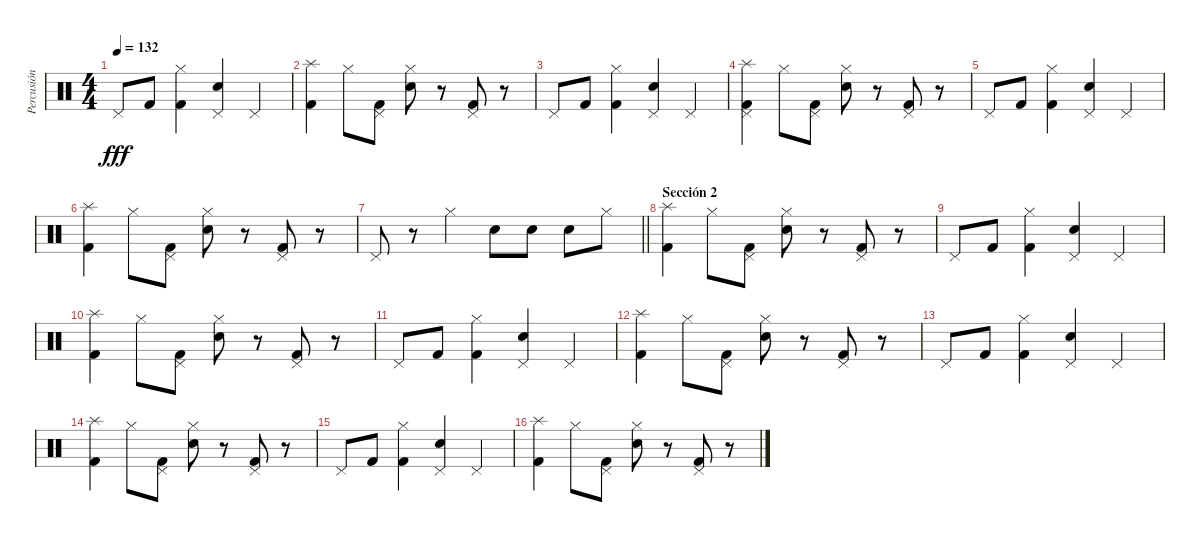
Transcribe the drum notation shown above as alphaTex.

\track ("Percusión" "Percusión") {instrument percussion}
\staff {score}
\articulation defaults
\ts (4 4)
\tempo 132
\clef neutral
\ks c "Pedal Hi-Hat (hit)".8{dy fff} "Kick (hit) 2".8
("Hi-Hat (closed)" "Kick (hit) 2").4 ("Pedal Hi-Hat (hit)" "Snare (hit) 2").4 "Pedal Hi-Hat (hit)".4 |
("Splash (hit)" "Kick (hit) 2").4 "Hi-Hat (closed)".8 ("Pedal Hi-Hat (hit)" "Kick (hit) 2").8 ("Hi-Hat (closed)" "Snare (hit) 2").8 r.8 ("Pedal Hi-Hat (hit)" "Kick (hit) 2").8 r.8 |
"Pedal Hi-Hat (hit)".8 "Kick (hit) 2".8 ("Hi-Hat (closed)" "Kick (hit) 2").4 ("Pedal Hi-Hat (hit)" "Snare (hit) 2").4 "Pedal Hi-Hat (hit)".4 |
("Splash (hit)" "Pedal Hi-Hat (hit)" "Kick (hit) 2").4 "Hi-Hat (closed)".8 ("Pedal Hi-Hat (hit)" "Kick (hit) 2").8 ("Hi-Hat (closed)" "Snare (hit) 2").8 r.8 ("Pedal Hi-Hat (hit)" "Kick (hit) 2").8 r.8 |
"Pedal Hi-Hat (hit)".8 "Kick (hit) 2".8 ("Hi-Hat (closed)" "Kick (hit) 2").4 ("Pedal Hi-Hat (hit)" "Snare (hit) 2").4 "Pedal Hi-Hat (hit)".4 |
("Splash (hit)" "Kick (hit) 2").4 "Hi-Hat (closed)".8 ("Pedal Hi-Hat (hit)" "Kick (hit) 2").8 ("Hi-Hat (closed)" "Snare (hit) 2").8 r.8 ("Pedal Hi-Hat (hit)" "Kick (hit) 2").8 r.8 |
\barLineRight lightlight "Pedal Hi-Hat (hit)".8
r.8 "Hi-Hat (closed)".4 "Snare (hit) 2".8 "Snare (hit) 2".8 "Snare (hit) 2".8 "Hi-Hat (closed)".8 |
\section ("" "Sección 2")
("Splash (hit)" "Kick (hit) 2").4 "Hi-Hat (closed)".8 ("Pedal Hi-Hat (hit)" "Kick (hit) 2").8 ("Hi-Hat (closed)" "Snare (hit) 2").8 r.8 ("Pedal Hi-Hat (hit)" "Kick (hit) 2").8 r.8 |
"Pedal Hi-Hat (hit)".8 "Kick (hit) 2".8 ("Hi-Hat (closed)" "Kick (hit) 2").4 ("Pedal Hi-Hat (hit)" "Snare (hit) 2").4 "Pedal Hi-Hat (hit)".4 |
("Splash (hit)" "Kick (hit) 2").4 "Hi-Hat (closed)".8 ("Pedal Hi-Hat (hit)" "Kick (hit) 2").8 ("Hi-Hat (closed)" "Snare (hit) 2").8 r.8 ("Pedal Hi-Hat (hit)" "Kick (hit) 2").8 r.8 |
"Pedal Hi-Hat (hit)".8 "Kick (hit) 2".8 ("Hi-Hat (closed)" "Kick (hit) 2").4 ("Pedal Hi-Hat (hit)" "Snare (hit) 2").4 "Pedal Hi-Hat (hit)".4 |
("Splash (hit)" "Kick (hit) 2").4 "Hi-Hat (closed)".8 ("Pedal Hi-Hat (hit)" "Kick (hit) 2").8 ("Hi-Hat (closed)" "Snare (hit) 2").8 r.8 ("Pedal Hi-Hat (hit)" "Kick (hit) 2").8 r.8 |
"Pedal Hi-Hat (hit)".8 "Kick (hit) 2".8 ("Hi-Hat (closed)" "Kick (hit) 2").4 ("Pedal Hi-Hat (hit)" "Snare (hit) 2").4 "Pedal Hi-Hat (hit)".4 |
("Splash (hit)" "Kick (hit) 2").4 "Hi-Hat (closed)".8 ("Pedal Hi-Hat (hit)" "Kick (hit) 2").8 ("Hi-Hat (closed)" "Snare (hit) 2").8 r.8 ("Pedal Hi-Hat (hit)" "Kick (hit) 2").8 r.8 |
"Pedal Hi-Hat (hit)".8 "Kick (hit) 2".8 ("Hi-Hat (closed)" "Kick (hit) 2").4 ("Pedal Hi-Hat (hit)" "Snare (hit) 2").4 "Pedal Hi-Hat (hit)".4 |
("Splash (hit)" "Kick (hit) 2").4 "Hi-Hat (closed)".8 ("Pedal Hi-Hat (hit)" "Kick (hit) 2").8 ("Hi-Hat (closed)" "Snare (hit) 2").8 r.8 ("Pedal Hi-Hat (hit)" "Kick (hit) 2").8 r.8
